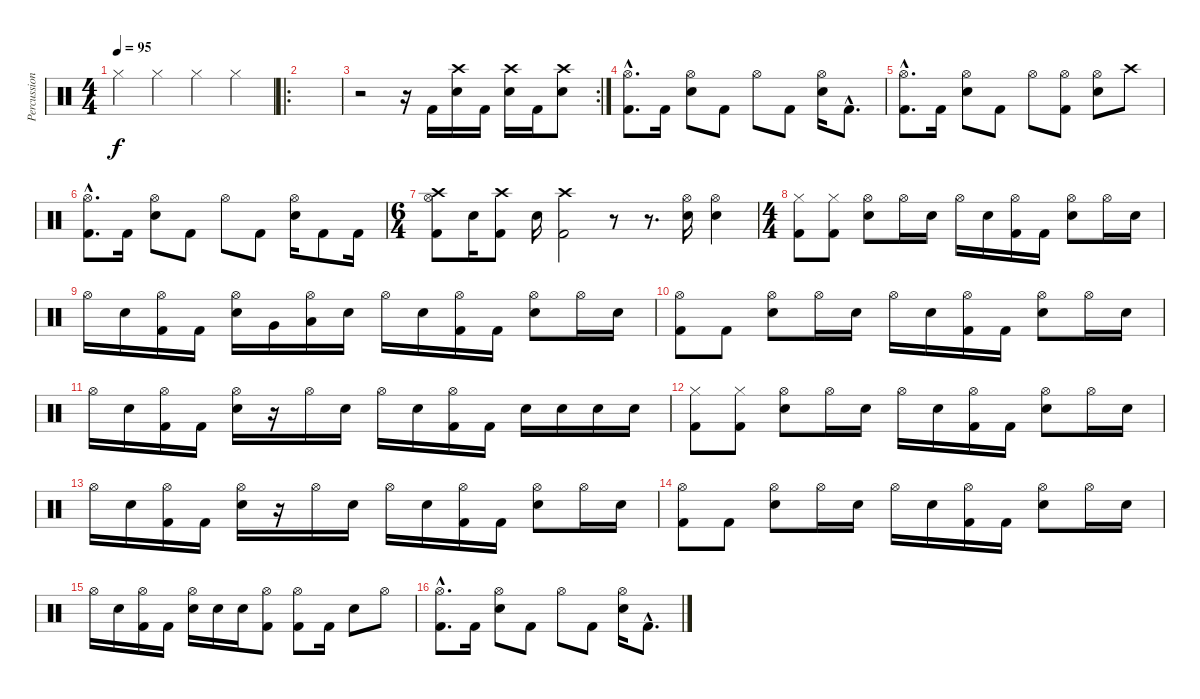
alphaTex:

\track ("Percussioni" "Percussion") {instrument percussion}
\staff {score}
\articulation defaults
\ts (4 4)
\tempo 95
\clef neutral
\ks c "Hi-Hat (closed)".4{dy f} "Hi-Hat (closed)".4 "Hi-Hat (closed)".4 "Hi-Hat (closed)".4
|
\ro
|
\rc 2
r.2 r.16 "Kick (hit) 2".16 ("Crash high (hit)" "Snare (hit) 2").16 "Kick (hit) 2".16 ("Crash high (hit)" "Snare (hit) 2").16 "Kick (hit) 2".16 ("Crash high (hit)" "Snare (hit) 2").8 |
("Hi-Hat (open)"{hac} "Kick (hit) 2"{hac}).8{d} "Kick (hit) 2".16 ("Hi-Hat (open)" "Snare (hit) 2").8 "Kick (hit) 2".8 "Hi-Hat (open)".8 "Kick (hit) 2".8 ("Hi-Hat (open)" "Snare (hit) 2").16 "Kick (hit) 2"{hac}.8{d} |
("Hi-Hat (open)"{hac} "Kick (hit) 2"{hac}).8{d} "Kick (hit) 2".16 ("Hi-Hat (open)" "Snare (hit) 2").8 "Kick (hit) 2".8 "Hi-Hat (open)".8 ("Hi-Hat (open)" "Kick (hit) 2").8 ("Hi-Hat (open)" "Snare (hit) 2").8 "Crash high (hit)".8 |
("Hi-Hat (open)"{hac} "Kick (hit) 2"{hac}).8{d} "Kick (hit) 2".16 ("Hi-Hat (open)" "Snare (hit) 2").8 "Kick (hit) 2".8 "Hi-Hat (open)".8 "Kick (hit) 2".8 ("Hi-Hat (open)" "Snare (hit) 2").16 "Kick (hit) 2".8 "Kick (hit) 2".16 |
\ts (6 4)
("Hi-Hat (open)" "Crash high (hit)" "Kick (hit) 2").8 "Snare (hit) 2".16 ("Crash high (hit)" "Kick (hit) 2").8 "Snare (hit) 2".16 ("Crash high (hit)" "Kick (hit) 2").2 r.8 r.8{d} ("Hi-Hat (open)" "Snare (hit) 2").16 ("Hi-Hat (open)" "Snare (hit) 2").4 |
\ts (4 4)
("Hi-Hat (closed)" "Kick (hit) 2").8 ("Hi-Hat (closed)" "Kick (hit) 2").8 ("Hi-Hat (open)" "Snare (hit) 2").8 "Hi-Hat (open)".16 "Snare (hit) 2".16 "Hi-Hat (open)".16 "Snare (hit) 2".16 ("Hi-Hat (open)" "Kick (hit) 2").16 "Kick (hit) 2".16 ("Hi-Hat (open)" "Snare (hit) 2").8 "Hi-Hat (open)".16 "Snare (hit) 2".16 |
"Hi-Hat (open)".16 "Snare (hit) 2".16 ("Hi-Hat (open)" "Kick (hit) 2").16 "Kick (hit) 2".16 ("Hi-Hat (open)" "Snare (hit) 2").16 "Very Low Tom (hit)".16 ("Hi-Hat (open)" "Low Floor Tom (hit)").16 "Snare (hit) 2".16 "Hi-Hat (open)".16 "Snare (hit) 2".16 ("Hi-Hat (open)" "Kick (hit) 2").16 "Kick (hit) 2".16 ("Hi-Hat (open)" "Snare (hit) 2").8 "Hi-Hat (open)".16 "Snare (hit) 2".16 |
("Hi-Hat (open)" "Kick (hit) 2").8 "Kick (hit) 2".8 ("Hi-Hat (open)" "Snare (hit) 2").8 "Hi-Hat (open)".16 "Snare (hit) 2".16 "Hi-Hat (open)".16 "Snare (hit) 2".16 ("Hi-Hat (open)" "Kick (hit) 2").16 "Kick (hit) 2".16 ("Hi-Hat (open)" "Snare (hit) 2").8 "Hi-Hat (open)".16 "Snare (hit) 2".16 |
"Hi-Hat (open)".16 "Snare (hit) 2".16 ("Hi-Hat (open)" "Kick (hit) 2").16 "Kick (hit) 2".16 ("Hi-Hat (open)" "Snare (hit) 2").16 r.16 "Hi-Hat (open)".16 "Snare (hit) 2".16 "Hi-Hat (open)".16 "Snare (hit) 2".16 ("Hi-Hat (open)" "Kick (hit) 2").16 "Kick (hit) 2".16 "Snare (hit) 2".16 "Snare (hit) 2".16 "Snare (hit) 2".16 "Snare (hit) 2".16 |
("Hi-Hat (closed)" "Kick (hit) 2").8 ("Hi-Hat (closed)" "Kick (hit) 2").8 ("Hi-Hat (open)" "Snare (hit) 2").8 "Hi-Hat (open)".16 "Snare (hit) 2".16 "Hi-Hat (open)".16 "Snare (hit) 2".16 ("Hi-Hat (open)" "Kick (hit) 2").16 "Kick (hit) 2".16 ("Hi-Hat (open)" "Snare (hit) 2").8 "Hi-Hat (open)".16 "Snare (hit) 2".16 |
"Hi-Hat (open)".16 "Snare (hit) 2".16 ("Hi-Hat (open)" "Kick (hit) 2").16 "Kick (hit) 2".16 ("Hi-Hat (open)" "Snare (hit) 2").16 r.16 "Hi-Hat (open)".16 "Snare (hit) 2".16 "Hi-Hat (open)".16 "Snare (hit) 2".16 ("Hi-Hat (open)" "Kick (hit) 2").16 "Kick (hit) 2".16 ("Hi-Hat (open)" "Snare (hit) 2").8 "Hi-Hat (open)".16 "Snare (hit) 2".16 |
("Hi-Hat (open)" "Kick (hit) 2").8 "Kick (hit) 2".8 ("Hi-Hat (open)" "Snare (hit) 2").8 "Hi-Hat (open)".16 "Snare (hit) 2".16 "Hi-Hat (open)".16 "Snare (hit) 2".16 ("Hi-Hat (open)" "Kick (hit) 2").16 "Kick (hit) 2".16 ("Hi-Hat (open)" "Snare (hit) 2").8 "Hi-Hat (open)".16 "Snare (hit) 2".16 |
"Hi-Hat (open)".16 "Snare (hit) 2".16 ("Hi-Hat (open)" "Kick (hit) 2").16 "Kick (hit) 2".16 ("Hi-Hat (open)" "Snare (hit) 2").16 "Snare (hit) 2".16 "Snare (hit) 2".16 ("Hi-Hat (open)" "Kick (hit) 2").8 ("Hi-Hat (open)" "Kick (hit) 2").8 "Kick (hit) 2".16 "Snare (hit) 2".8 "Hi-Hat (open)".8 |
("Hi-Hat (open)"{hac} "Kick (hit) 2"{hac}).8{d} "Kick (hit) 2".16 ("Hi-Hat (open)" "Snare (hit) 2").8 "Kick (hit) 2".8 "Hi-Hat (open)".8 "Kick (hit) 2".8 ("Hi-Hat (open)" "Snare (hit) 2").16 "Kick (hit) 2"{hac}.8{d}
